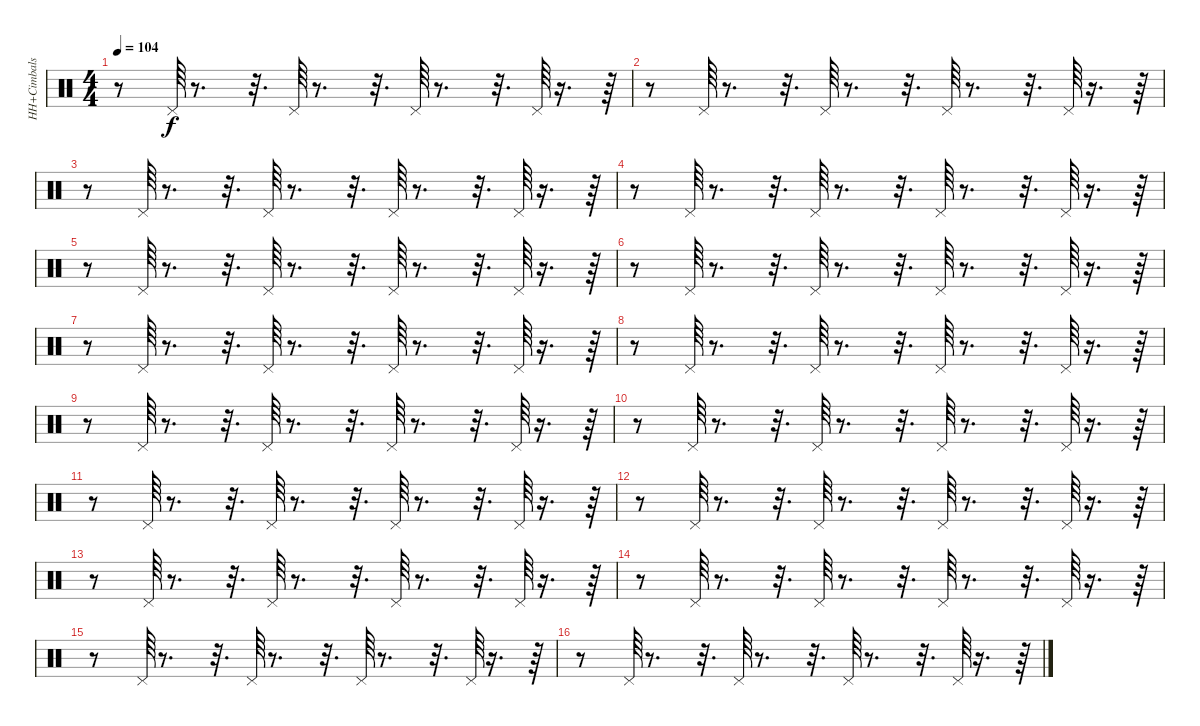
\track ("HH+Cimbals" "HH+Cimbals") {instrument percussion}
\staff {score}
\articulation defaults
\ts (4 4)
\tempo 104
\clef neutral
\ks c
r.8{dy f} "Pedal Hi-Hat (hit)".64 r.8{d} r.32{d} "Pedal Hi-Hat (hit)".64 r.8{d} r.32{d} "Pedal Hi-Hat (hit)".64 r.8{d} r.32{d} "Pedal Hi-Hat (hit)".64 r.16{d} r.64 |
r.8 "Pedal Hi-Hat (hit)".64 r.8{d} r.32{d} "Pedal Hi-Hat (hit)".64 r.8{d} r.32{d} "Pedal Hi-Hat (hit)".64 r.8{d} r.32{d} "Pedal Hi-Hat (hit)".64 r.16{d} r.64 |
r.8 "Pedal Hi-Hat (hit)".64 r.8{d} r.32{d} "Pedal Hi-Hat (hit)".64 r.8{d} r.32{d} "Pedal Hi-Hat (hit)".64 r.8{d} r.32{d} "Pedal Hi-Hat (hit)".64 r.16{d} r.64 |
r.8 "Pedal Hi-Hat (hit)".64 r.8{d} r.32{d} "Pedal Hi-Hat (hit)".64 r.8{d} r.32{d} "Pedal Hi-Hat (hit)".64 r.8{d} r.32{d} "Pedal Hi-Hat (hit)".64 r.16{d} r.64 |
r.8 "Pedal Hi-Hat (hit)".64 r.8{d} r.32{d} "Pedal Hi-Hat (hit)".64 r.8{d} r.32{d} "Pedal Hi-Hat (hit)".64 r.8{d} r.32{d} "Pedal Hi-Hat (hit)".64 r.16{d} r.64 |
r.8 "Pedal Hi-Hat (hit)".64 r.8{d} r.32{d} "Pedal Hi-Hat (hit)".64 r.8{d} r.32{d} "Pedal Hi-Hat (hit)".64 r.8{d} r.32{d} "Pedal Hi-Hat (hit)".64 r.16{d} r.64 |
r.8 "Pedal Hi-Hat (hit)".64 r.8{d} r.32{d} "Pedal Hi-Hat (hit)".64 r.8{d} r.32{d} "Pedal Hi-Hat (hit)".64 r.8{d} r.32{d} "Pedal Hi-Hat (hit)".64 r.16{d} r.64 |
r.8 "Pedal Hi-Hat (hit)".64 r.8{d} r.32{d} "Pedal Hi-Hat (hit)".64 r.8{d} r.32{d} "Pedal Hi-Hat (hit)".64 r.8{d} r.32{d} "Pedal Hi-Hat (hit)".64 r.16{d} r.64 |
r.8 "Pedal Hi-Hat (hit)".64 r.8{d} r.32{d} "Pedal Hi-Hat (hit)".64 r.8{d} r.32{d} "Pedal Hi-Hat (hit)".64 r.8{d} r.32{d} "Pedal Hi-Hat (hit)".64 r.16{d} r.64 |
r.8 "Pedal Hi-Hat (hit)".64 r.8{d} r.32{d} "Pedal Hi-Hat (hit)".64 r.8{d} r.32{d} "Pedal Hi-Hat (hit)".64 r.8{d} r.32{d} "Pedal Hi-Hat (hit)".64 r.16{d} r.64 |
r.8 "Pedal Hi-Hat (hit)".64 r.8{d} r.32{d} "Pedal Hi-Hat (hit)".64 r.8{d} r.32{d} "Pedal Hi-Hat (hit)".64 r.8{d} r.32{d} "Pedal Hi-Hat (hit)".64 r.16{d} r.64 |
r.8 "Pedal Hi-Hat (hit)".64 r.8{d} r.32{d} "Pedal Hi-Hat (hit)".64 r.8{d} r.32{d} "Pedal Hi-Hat (hit)".64 r.8{d} r.32{d} "Pedal Hi-Hat (hit)".64 r.16{d} r.64 |
r.8 "Pedal Hi-Hat (hit)".64 r.8{d} r.32{d} "Pedal Hi-Hat (hit)".64 r.8{d} r.32{d} "Pedal Hi-Hat (hit)".64 r.8{d} r.32{d} "Pedal Hi-Hat (hit)".64 r.16{d} r.64 |
r.8 "Pedal Hi-Hat (hit)".64 r.8{d} r.32{d} "Pedal Hi-Hat (hit)".64 r.8{d} r.32{d} "Pedal Hi-Hat (hit)".64 r.8{d} r.32{d} "Pedal Hi-Hat (hit)".64 r.16{d} r.64 |
r.8 "Pedal Hi-Hat (hit)".64 r.8{d} r.32{d} "Pedal Hi-Hat (hit)".64 r.8{d} r.32{d} "Pedal Hi-Hat (hit)".64 r.8{d} r.32{d} "Pedal Hi-Hat (hit)".64 r.16{d} r.64 |
r.8 "Pedal Hi-Hat (hit)".64 r.8{d} r.32{d} "Pedal Hi-Hat (hit)".64 r.8{d} r.32{d} "Pedal Hi-Hat (hit)".64 r.8{d} r.32{d} "Pedal Hi-Hat (hit)".64 r.16{d} r.64
